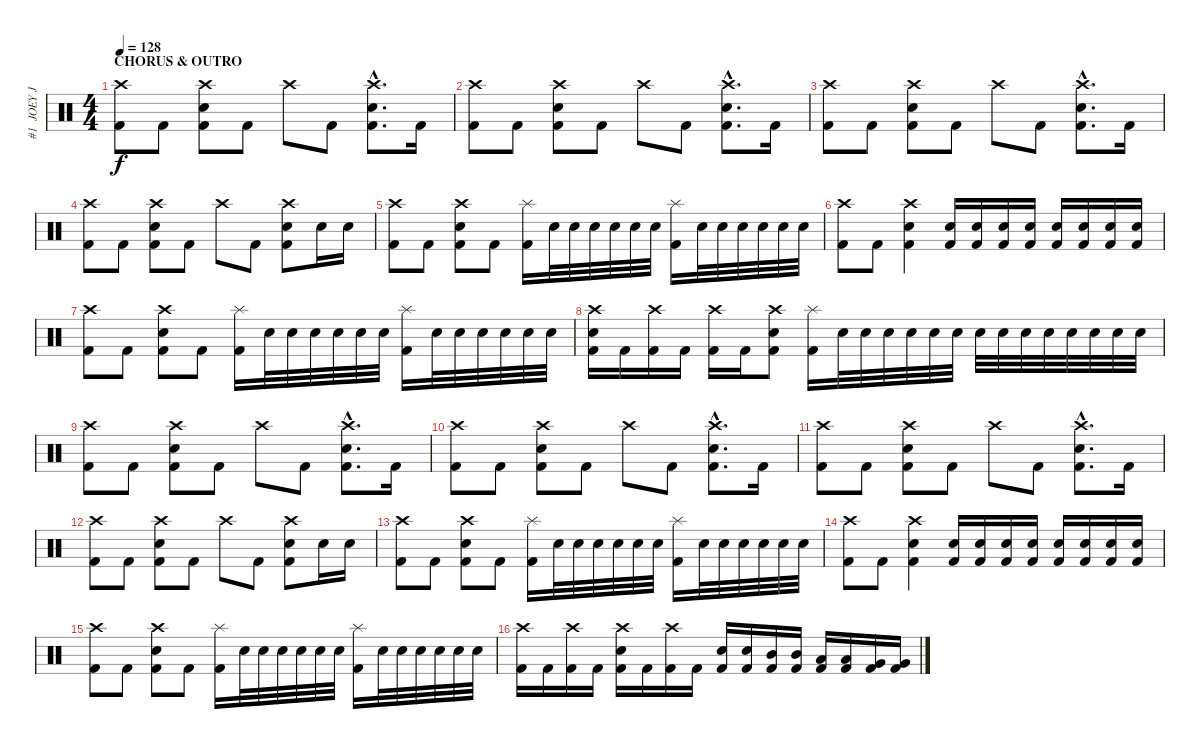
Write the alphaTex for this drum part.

\track ("#1  JOEY JORDISON" "#1  JOEY J") {instrument percussion}
\staff {score}
\articulation defaults
\ts (4 4)
\section ("" "CHORUS & OUTRO")
\tempo 128
\clef neutral
\ks c
("Crash high (hit)" "Kick (hit) 2").8{dy f} "Kick (hit) 2".8 ("Crash high (hit)" "Electric Snare (hit)" "Kick (hit) 2").8 "Kick (hit) 2".8 "Crash high (hit)".8 "Kick (hit) 2".8 ("Crash high (hit)"{hac} "Electric Snare (hit)"{hac} "Kick (hit) 2"{hac}).8{d} "Kick (hit) 2".16 |
("Crash high (hit)" "Kick (hit) 2").8 "Kick (hit) 2".8 ("Crash high (hit)" "Electric Snare (hit)" "Kick (hit) 2").8 "Kick (hit) 2".8 "Crash high (hit)".8 "Kick (hit) 2".8 ("Crash high (hit)"{hac} "Electric Snare (hit)"{hac} "Kick (hit) 2"{hac}).8{d} "Kick (hit) 2".16 |
("Crash high (hit)" "Kick (hit) 2").8 "Kick (hit) 2".8 ("Crash high (hit)" "Electric Snare (hit)" "Kick (hit) 2").8 "Kick (hit) 2".8 "Crash high (hit)".8 "Kick (hit) 2".8 ("Crash high (hit)"{hac} "Electric Snare (hit)"{hac} "Kick (hit) 2"{hac}).8{d} "Kick (hit) 2".16 |
("Crash high (hit)" "Kick (hit) 2").8 "Kick (hit) 2".8 ("Crash high (hit)" "Electric Snare (hit)" "Kick (hit) 2").8 "Kick (hit) 2".8 "Crash high (hit)".8 "Kick (hit) 2".8 ("Crash high (hit)" "Electric Snare (hit)" "Kick (hit) 2").8 "Electric Snare (hit)".16 "Electric Snare (hit)".16 |
("Crash high (hit)" "Kick (hit) 2").8 "Kick (hit) 2".8 ("Crash high (hit)" "Electric Snare (hit)" "Kick (hit) 2").8 "Kick (hit) 2".8 ("Splash (hit)" "Kick (hit) 2").16 "Electric Snare (hit)".32 "Electric Snare (hit)".32 "Electric Snare (hit)".32 "Electric Snare (hit)".32 "Electric Snare (hit)".32 "Electric Snare (hit)".32 ("Splash (hit)" "Kick (hit) 2").16 "Electric Snare (hit)".32 "Electric Snare (hit)".32 "Electric Snare (hit)".32 "Electric Snare (hit)".32 "Electric Snare (hit)".32 "Electric Snare (hit)".32 |
("Crash high (hit)" "Kick (hit) 2").8 "Kick (hit) 2".8 ("Crash high (hit)" "Electric Snare (hit)" "Kick (hit) 2").4 ("Electric Snare (hit)" "Kick (hit) 2").16 ("Electric Snare (hit)" "Kick (hit) 2").16 ("Electric Snare (hit)" "Kick (hit) 2").16 ("Electric Snare (hit)" "Kick (hit) 2").16 ("Electric Snare (hit)" "Kick (hit) 2").16 ("Electric Snare (hit)" "Kick (hit) 2").16 ("Electric Snare (hit)" "Kick (hit) 2").16 ("Electric Snare (hit)" "Kick (hit) 2").16 |
("Crash high (hit)" "Kick (hit) 2").8 "Kick (hit) 2".8 ("Crash high (hit)" "Electric Snare (hit)" "Kick (hit) 2").8 "Kick (hit) 2".8 ("Splash (hit)" "Kick (hit) 2").16 "Electric Snare (hit)".32 "Electric Snare (hit)".32 "Electric Snare (hit)".32 "Electric Snare (hit)".32 "Electric Snare (hit)".32 "Electric Snare (hit)".32 ("Splash (hit)" "Kick (hit) 2").16 "Electric Snare (hit)".32 "Electric Snare (hit)".32 "Electric Snare (hit)".32 "Electric Snare (hit)".32 "Electric Snare (hit)".32 "Electric Snare (hit)".32 |
("Crash high (hit)" "Electric Snare (hit)" "Kick (hit) 2").16 "Kick (hit) 2".16 ("Crash high (hit)" "Kick (hit) 2").16 "Kick (hit) 2".16 ("Crash high (hit)" "Kick (hit) 2").16 "Kick (hit) 2".16 ("Crash high (hit)" "Electric Snare (hit)" "Kick (hit) 2").8 ("Splash (hit)" "Kick (hit) 2").16 "Electric Snare (hit)".32 "Electric Snare (hit)".32 "Electric Snare (hit)".32 "Electric Snare (hit)".32 "Electric Snare (hit)".32 "Electric Snare (hit)".32 "Electric Snare (hit)".32 "Electric Snare (hit)".32 "Electric Snare (hit)".32 "Electric Snare (hit)".32 "Electric Snare (hit)".32 "Electric Snare (hit)".32 "Electric Snare (hit)".32 "Electric Snare (hit)".32 |
("Crash high (hit)" "Kick (hit) 2").8 "Kick (hit) 2".8 ("Crash high (hit)" "Electric Snare (hit)" "Kick (hit) 2").8 "Kick (hit) 2".8 "Crash high (hit)".8 "Kick (hit) 2".8 ("Crash high (hit)"{hac} "Electric Snare (hit)"{hac} "Kick (hit) 2"{hac}).8{d} "Kick (hit) 2".16 |
("Crash high (hit)" "Kick (hit) 2").8 "Kick (hit) 2".8 ("Crash high (hit)" "Electric Snare (hit)" "Kick (hit) 2").8 "Kick (hit) 2".8 "Crash high (hit)".8 "Kick (hit) 2".8 ("Crash high (hit)"{hac} "Electric Snare (hit)"{hac} "Kick (hit) 2"{hac}).8{d} "Kick (hit) 2".16 |
("Crash high (hit)" "Kick (hit) 2").8 "Kick (hit) 2".8 ("Crash high (hit)" "Electric Snare (hit)" "Kick (hit) 2").8 "Kick (hit) 2".8 "Crash high (hit)".8 "Kick (hit) 2".8 ("Crash high (hit)"{hac} "Electric Snare (hit)"{hac} "Kick (hit) 2"{hac}).8{d} "Kick (hit) 2".16 |
("Crash high (hit)" "Kick (hit) 2").8 "Kick (hit) 2".8 ("Crash high (hit)" "Electric Snare (hit)" "Kick (hit) 2").8 "Kick (hit) 2".8 "Crash high (hit)".8 "Kick (hit) 2".8 ("Crash high (hit)" "Electric Snare (hit)" "Kick (hit) 2").8 "Electric Snare (hit)".16 "Electric Snare (hit)".16 |
("Crash high (hit)" "Kick (hit) 2").8 "Kick (hit) 2".8 ("Crash high (hit)" "Electric Snare (hit)" "Kick (hit) 2").8 "Kick (hit) 2".8 ("Splash (hit)" "Kick (hit) 2").16 "Electric Snare (hit)".32 "Electric Snare (hit)".32 "Electric Snare (hit)".32 "Electric Snare (hit)".32 "Electric Snare (hit)".32 "Electric Snare (hit)".32 ("Splash (hit)" "Kick (hit) 2").16 "Electric Snare (hit)".32 "Electric Snare (hit)".32 "Electric Snare (hit)".32 "Electric Snare (hit)".32 "Electric Snare (hit)".32 "Electric Snare (hit)".32 |
("Crash high (hit)" "Kick (hit) 2").8 "Kick (hit) 2".8 ("Crash high (hit)" "Electric Snare (hit)" "Kick (hit) 2").4 ("Electric Snare (hit)" "Kick (hit) 2").16 ("Electric Snare (hit)" "Kick (hit) 2").16 ("Electric Snare (hit)" "Kick (hit) 2").16 ("Electric Snare (hit)" "Kick (hit) 2").16 ("Electric Snare (hit)" "Kick (hit) 2").16 ("Electric Snare (hit)" "Kick (hit) 2").16 ("Electric Snare (hit)" "Kick (hit) 2").16 ("Electric Snare (hit)" "Kick (hit) 2").16 |
("Crash high (hit)" "Kick (hit) 2").8 "Kick (hit) 2".8 ("Crash high (hit)" "Electric Snare (hit)" "Kick (hit) 2").8 "Kick (hit) 2".8 ("Splash (hit)" "Kick (hit) 2").16 "Electric Snare (hit)".32 "Electric Snare (hit)".32 "Electric Snare (hit)".32 "Electric Snare (hit)".32 "Electric Snare (hit)".32 "Electric Snare (hit)".32 ("Splash (hit)" "Kick (hit) 2").16 "Electric Snare (hit)".32 "Electric Snare (hit)".32 "Electric Snare (hit)".32 "Electric Snare (hit)".32 "Electric Snare (hit)".32 "Electric Snare (hit)".32 |
("Crash high (hit)" "Kick (hit) 2").16 "Kick (hit) 2".16 ("Crash high (hit)" "Kick (hit) 2").16 "Kick (hit) 2".16 ("Crash high (hit)" "Electric Snare (hit)" "Kick (hit) 2").16 "Kick (hit) 2".16 ("Crash high (hit)" "Kick (hit) 2").16 "Kick (hit) 2".16 ("Electric Snare (hit)" "Kick (hit) 2").16 ("Electric Snare (hit)" "Kick (hit) 2").16 ("Mid Tom (hit)" "Kick (hit) 2").16 ("Mid Tom (hit)" "Kick (hit) 2").16 ("Low Tom (hit)" "Kick (hit) 2").16 ("Low Tom (hit)" "Kick (hit) 2").16 ("Very Low Tom (hit)" "Kick (hit) 2").16 ("Very Low Tom (hit)" "Kick (hit) 2").16
